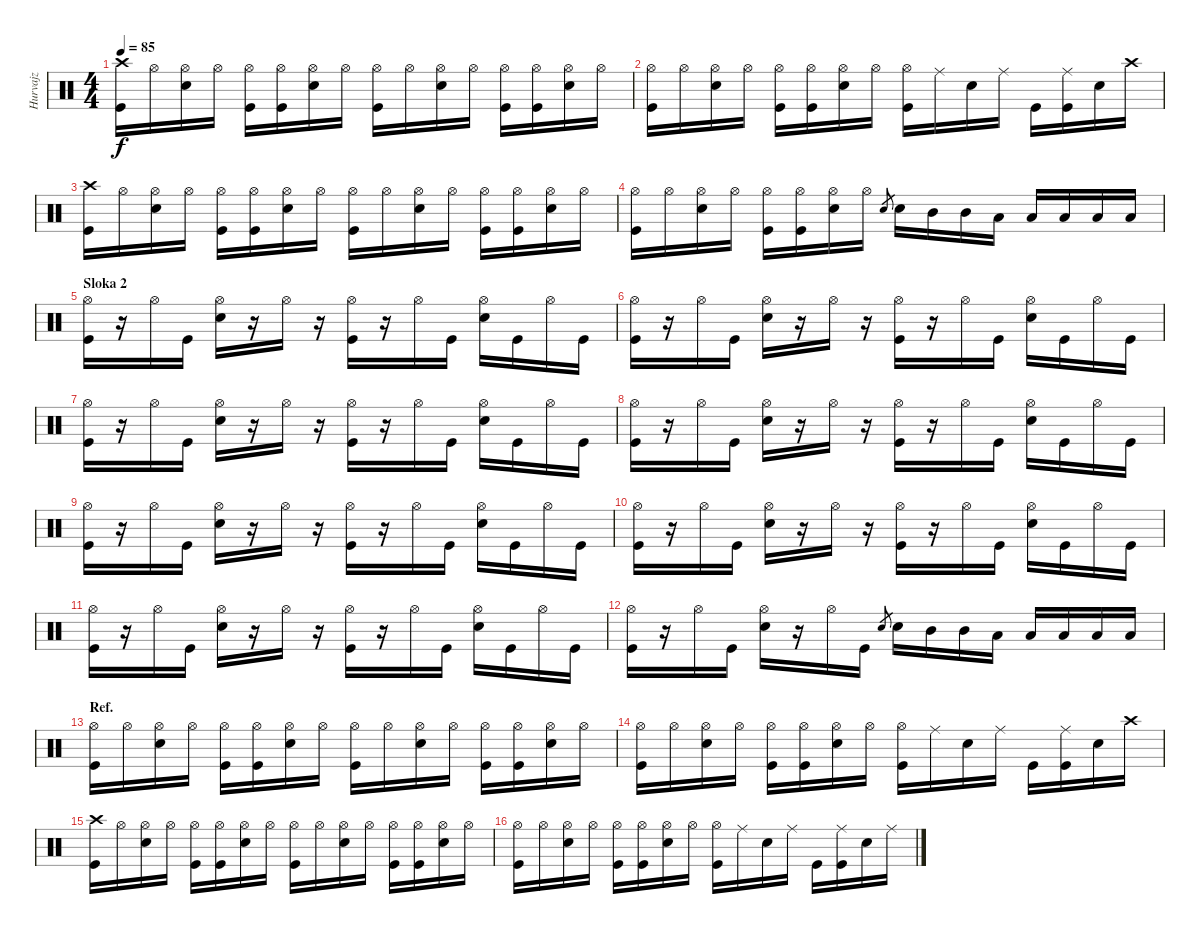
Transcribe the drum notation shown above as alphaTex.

\track ("Hurvajz" "Hurvajz") {instrument percussion}
\staff {score}
\articulation defaults
\ts (4 4)
\tempo 85
\clef neutral
\ks c
("Crash high (hit)" "Kick (hit)").16{dy f} "Hi-Hat (open)".16 ("Hi-Hat (open)" "Snare (hit) 2").16 "Hi-Hat (open)".16 ("Hi-Hat (open)" "Kick (hit)").16 ("Hi-Hat (open)" "Kick (hit)").16 ("Hi-Hat (open)" "Snare (hit) 2").16 "Hi-Hat (open)".16 ("Hi-Hat (open)" "Kick (hit)").16 "Hi-Hat (open)".16 ("Hi-Hat (open)" "Snare (hit) 2").16 "Hi-Hat (open)".16 ("Hi-Hat (open)" "Kick (hit)").16 ("Hi-Hat (open)" "Kick (hit)").16 ("Hi-Hat (open)" "Snare (hit) 2").16 "Hi-Hat (open)".16 |
("Hi-Hat (open)" "Kick (hit)").16 "Hi-Hat (open)".16 ("Hi-Hat (open)" "Snare (hit) 2").16 "Hi-Hat (open)".16 ("Hi-Hat (open)" "Kick (hit)").16 ("Hi-Hat (open)" "Kick (hit)").16 ("Hi-Hat (open)" "Snare (hit) 2").16 "Hi-Hat (open)".16 ("Hi-Hat (open)" "Kick (hit)").16 "Ride (middle)".16 "Snare (hit) 2".16 "Ride (middle)".16 "Kick (hit)".16 ("Ride (middle)" "Kick (hit)").16 "Snare (hit) 2".16 "Crash high (hit)".16 |
("Crash high (hit)" "Kick (hit)").16 "Hi-Hat (open)".16 ("Hi-Hat (open)" "Snare (hit) 2").16 "Hi-Hat (open)".16 ("Hi-Hat (open)" "Kick (hit)").16 ("Hi-Hat (open)" "Kick (hit)").16 ("Hi-Hat (open)" "Snare (hit) 2").16 "Hi-Hat (open)".16 ("Hi-Hat (open)" "Kick (hit)").16 "Hi-Hat (open)".16 ("Hi-Hat (open)" "Snare (hit) 2").16 "Hi-Hat (open)".16 ("Hi-Hat (open)" "Kick (hit)").16 ("Hi-Hat (open)" "Kick (hit)").16 ("Hi-Hat (open)" "Snare (hit) 2").16 "Hi-Hat (open)".16 |
("Hi-Hat (open)" "Kick (hit)").16 "Hi-Hat (open)".16 ("Hi-Hat (open)" "Snare (hit) 2").16 "Hi-Hat (open)".16 ("Hi-Hat (open)" "Kick (hit)").16 ("Hi-Hat (open)" "Kick (hit)").16 ("Hi-Hat (open)" "Snare (hit) 2").16 "Hi-Hat (open)".16 "Snare (hit) 2".8{gr} "Snare (hit) 2".16 "Mid Tom (hit)".16 "Mid Tom (hit)".16 "Low Tom (hit)".16 "Low Tom (hit)".16 "Low Floor Tom (hit)".16 "Low Floor Tom (hit)".16 "Low Floor Tom (hit)".16 |
\section ("" "Sloka 2")
("Hi-Hat (open)" "Kick (hit)").16 r.16 "Hi-Hat (open)".16 "Kick (hit)".16 ("Hi-Hat (open)" "Snare (hit) 2").16 r.16 "Hi-Hat (open)".16 r.16 ("Hi-Hat (open)" "Kick (hit)").16 r.16 "Hi-Hat (open)".16 "Kick (hit)".16 ("Hi-Hat (open)" "Snare (hit) 2").16 "Kick (hit)".16 "Hi-Hat (open)".16 "Kick (hit)".16 |
("Hi-Hat (open)" "Kick (hit)").16 r.16 "Hi-Hat (open)".16 "Kick (hit)".16 ("Hi-Hat (open)" "Snare (hit) 2").16 r.16 "Hi-Hat (open)".16 r.16 ("Hi-Hat (open)" "Kick (hit)").16 r.16 "Hi-Hat (open)".16 "Kick (hit)".16 ("Hi-Hat (open)" "Snare (hit) 2").16 "Kick (hit)".16 "Hi-Hat (open)".16 "Kick (hit)".16 |
("Hi-Hat (open)" "Kick (hit)").16 r.16 "Hi-Hat (open)".16 "Kick (hit)".16 ("Hi-Hat (open)" "Snare (hit) 2").16 r.16 "Hi-Hat (open)".16 r.16 ("Hi-Hat (open)" "Kick (hit)").16 r.16 "Hi-Hat (open)".16 "Kick (hit)".16 ("Hi-Hat (open)" "Snare (hit) 2").16 "Kick (hit)".16 "Hi-Hat (open)".16 "Kick (hit)".16 |
("Hi-Hat (open)" "Kick (hit)").16 r.16 "Hi-Hat (open)".16 "Kick (hit)".16 ("Hi-Hat (open)" "Snare (hit) 2").16 r.16 "Hi-Hat (open)".16 r.16 ("Hi-Hat (open)" "Kick (hit)").16 r.16 "Hi-Hat (open)".16 "Kick (hit)".16 ("Hi-Hat (open)" "Snare (hit) 2").16 "Kick (hit)".16 "Hi-Hat (open)".16 "Kick (hit)".16 |
("Hi-Hat (open)" "Kick (hit)").16 r.16 "Hi-Hat (open)".16 "Kick (hit)".16 ("Hi-Hat (open)" "Snare (hit) 2").16 r.16 "Hi-Hat (open)".16 r.16 ("Hi-Hat (open)" "Kick (hit)").16 r.16 "Hi-Hat (open)".16 "Kick (hit)".16 ("Hi-Hat (open)" "Snare (hit) 2").16 "Kick (hit)".16 "Hi-Hat (open)".16 "Kick (hit)".16 |
("Hi-Hat (open)" "Kick (hit)").16 r.16 "Hi-Hat (open)".16 "Kick (hit)".16 ("Hi-Hat (open)" "Snare (hit) 2").16 r.16 "Hi-Hat (open)".16 r.16 ("Hi-Hat (open)" "Kick (hit)").16 r.16 "Hi-Hat (open)".16 "Kick (hit)".16 ("Hi-Hat (open)" "Snare (hit) 2").16 "Kick (hit)".16 "Hi-Hat (open)".16 "Kick (hit)".16 |
("Hi-Hat (open)" "Kick (hit)").16 r.16 "Hi-Hat (open)".16 "Kick (hit)".16 ("Hi-Hat (open)" "Snare (hit) 2").16 r.16 "Hi-Hat (open)".16 r.16 ("Hi-Hat (open)" "Kick (hit)").16 r.16 "Hi-Hat (open)".16 "Kick (hit)".16 ("Hi-Hat (open)" "Snare (hit) 2").16 "Kick (hit)".16 "Hi-Hat (open)".16 "Kick (hit)".16 |
("Hi-Hat (open)" "Kick (hit)").16 r.16 "Hi-Hat (open)".16 "Kick (hit)".16 ("Hi-Hat (open)" "Snare (hit) 2").16 r.16 "Hi-Hat (open)".16 "Kick (hit)".16 "Snare (hit) 2".8{gr} "Snare (hit) 2".16 "Mid Tom (hit)".16 "Mid Tom (hit)".16 "Low Tom (hit)".16 "Low Tom (hit)".16 "Low Floor Tom (hit)".16 "Low Floor Tom (hit)".16 "Low Floor Tom (hit)".16 |
\section ("" "Ref.")
("Hi-Hat (open)" "Kick (hit)").16 "Hi-Hat (open)".16 ("Hi-Hat (open)" "Snare (hit) 2").16 "Hi-Hat (open)".16 ("Hi-Hat (open)" "Kick (hit)").16 ("Hi-Hat (open)" "Kick (hit)").16 ("Hi-Hat (open)" "Snare (hit) 2").16 "Hi-Hat (open)".16 ("Hi-Hat (open)" "Kick (hit)").16 "Hi-Hat (open)".16 ("Hi-Hat (open)" "Snare (hit) 2").16 "Hi-Hat (open)".16 ("Hi-Hat (open)" "Kick (hit)").16 ("Hi-Hat (open)" "Kick (hit)").16 ("Hi-Hat (open)" "Snare (hit) 2").16 "Hi-Hat (open)".16 |
("Hi-Hat (open)" "Kick (hit)").16 "Hi-Hat (open)".16 ("Hi-Hat (open)" "Snare (hit) 2").16 "Hi-Hat (open)".16 ("Hi-Hat (open)" "Kick (hit)").16 ("Hi-Hat (open)" "Kick (hit)").16 ("Hi-Hat (open)" "Snare (hit) 2").16 "Hi-Hat (open)".16 ("Hi-Hat (open)" "Kick (hit)").16 "Ride (middle)".16 "Snare (hit) 2".16 "Ride (middle)".16 "Kick (hit)".16 ("Ride (middle)" "Kick (hit)").16 "Snare (hit) 2".16 "Crash high (hit)".16 |
("Crash high (hit)" "Kick (hit)").16 "Hi-Hat (open)".16 ("Hi-Hat (open)" "Snare (hit) 2").16 "Hi-Hat (open)".16 ("Hi-Hat (open)" "Kick (hit)").16 ("Hi-Hat (open)" "Kick (hit)").16 ("Hi-Hat (open)" "Snare (hit) 2").16 "Hi-Hat (open)".16 ("Hi-Hat (open)" "Kick (hit)").16 "Hi-Hat (open)".16 ("Hi-Hat (open)" "Snare (hit) 2").16 "Hi-Hat (open)".16 ("Hi-Hat (open)" "Kick (hit)").16 ("Hi-Hat (open)" "Kick (hit)").16 ("Hi-Hat (open)" "Snare (hit) 2").16 "Hi-Hat (open)".16 |
("Hi-Hat (open)" "Kick (hit)").16 "Hi-Hat (open)".16 ("Hi-Hat (open)" "Snare (hit) 2").16 "Hi-Hat (open)".16 ("Hi-Hat (open)" "Kick (hit)").16 ("Hi-Hat (open)" "Kick (hit)").16 ("Hi-Hat (open)" "Snare (hit) 2").16 "Hi-Hat (open)".16 ("Hi-Hat (open)" "Kick (hit)").16 "Ride (middle)".16 "Snare (hit) 2".16 "Ride (middle)".16 "Kick (hit)".16 ("Ride (middle)" "Kick (hit)").16 "Snare (hit) 2".16 "Ride (middle)".16
